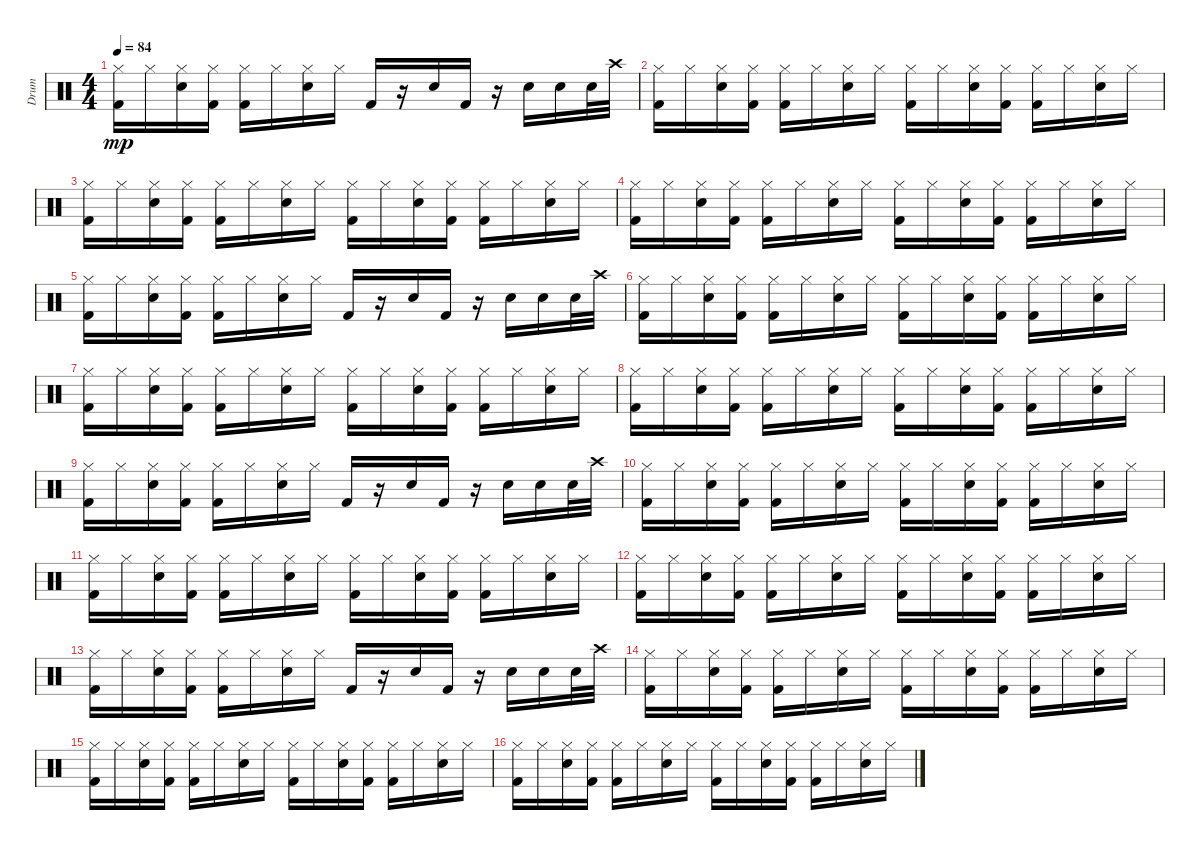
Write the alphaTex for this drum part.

\track ("Drum" "Drum") {instrument percussion}
\staff {score}
\articulation defaults
\ts (4 4)
\tempo 84
\clef neutral
\ks c
("Kick (hit) 2" "Hi-Hat (closed)").16{dy mp} "Hi-Hat (closed)".16 ("Snare (hit) 2" "Hi-Hat (closed)").16 ("Kick (hit) 2" "Hi-Hat (closed)").16 ("Kick (hit) 2" "Hi-Hat (closed)").16 "Hi-Hat (closed)".16 ("Snare (hit) 2" "Hi-Hat (closed)").16 "Hi-Hat (closed)".16 "Kick (hit) 2".16 r.16 "Snare (hit) 2".16 "Kick (hit) 2".16 r.16 "Snare (hit) 2".16 "Snare (hit) 2".16 "Snare (hit) 2".32 "Crash high (hit)".32 |
("Kick (hit) 2" "Hi-Hat (closed)").16 "Hi-Hat (closed)".16 ("Snare (hit) 2" "Hi-Hat (closed)").16 ("Kick (hit) 2" "Hi-Hat (closed)").16 ("Kick (hit) 2" "Hi-Hat (closed)").16 "Hi-Hat (closed)".16 ("Snare (hit) 2" "Hi-Hat (closed)").16 "Hi-Hat (closed)".16 ("Kick (hit) 2" "Hi-Hat (closed)").16 "Hi-Hat (closed)".16 ("Snare (hit) 2" "Hi-Hat (closed)").16 ("Kick (hit) 2" "Hi-Hat (closed)").16 ("Kick (hit) 2" "Hi-Hat (closed)").16 "Hi-Hat (closed)".16 ("Snare (hit) 2" "Hi-Hat (closed)").16 "Hi-Hat (closed)".16 |
("Kick (hit) 2" "Hi-Hat (closed)").16 "Hi-Hat (closed)".16 ("Snare (hit) 2" "Hi-Hat (closed)").16 ("Kick (hit) 2" "Hi-Hat (closed)").16 ("Kick (hit) 2" "Hi-Hat (closed)").16 "Hi-Hat (closed)".16 ("Snare (hit) 2" "Hi-Hat (closed)").16 "Hi-Hat (closed)".16 ("Kick (hit) 2" "Hi-Hat (closed)").16 "Hi-Hat (closed)".16 ("Snare (hit) 2" "Hi-Hat (closed)").16 ("Kick (hit) 2" "Hi-Hat (closed)").16 ("Kick (hit) 2" "Hi-Hat (closed)").16 "Hi-Hat (closed)".16 ("Snare (hit) 2" "Hi-Hat (closed)").16 "Hi-Hat (closed)".16 |
("Kick (hit) 2" "Hi-Hat (closed)").16 "Hi-Hat (closed)".16 ("Snare (hit) 2" "Hi-Hat (closed)").16 ("Kick (hit) 2" "Hi-Hat (closed)").16 ("Kick (hit) 2" "Hi-Hat (closed)").16 "Hi-Hat (closed)".16 ("Snare (hit) 2" "Hi-Hat (closed)").16 "Hi-Hat (closed)".16 ("Kick (hit) 2" "Hi-Hat (closed)").16 "Hi-Hat (closed)".16 ("Snare (hit) 2" "Hi-Hat (closed)").16 ("Kick (hit) 2" "Hi-Hat (closed)").16 ("Kick (hit) 2" "Hi-Hat (closed)").16 "Hi-Hat (closed)".16 ("Snare (hit) 2" "Hi-Hat (closed)").16 "Hi-Hat (closed)".16 |
("Kick (hit) 2" "Hi-Hat (closed)").16 "Hi-Hat (closed)".16 ("Snare (hit) 2" "Hi-Hat (closed)").16 ("Kick (hit) 2" "Hi-Hat (closed)").16 ("Kick (hit) 2" "Hi-Hat (closed)").16 "Hi-Hat (closed)".16 ("Snare (hit) 2" "Hi-Hat (closed)").16 "Hi-Hat (closed)".16 "Kick (hit) 2".16 r.16 "Snare (hit) 2".16 "Kick (hit) 2".16 r.16 "Snare (hit) 2".16 "Snare (hit) 2".16 "Snare (hit) 2".32 "Crash high (hit)".32 |
("Kick (hit) 2" "Hi-Hat (closed)").16 "Hi-Hat (closed)".16 ("Snare (hit) 2" "Hi-Hat (closed)").16 ("Kick (hit) 2" "Hi-Hat (closed)").16 ("Kick (hit) 2" "Hi-Hat (closed)").16 "Hi-Hat (closed)".16 ("Snare (hit) 2" "Hi-Hat (closed)").16 "Hi-Hat (closed)".16 ("Kick (hit) 2" "Hi-Hat (closed)").16 "Hi-Hat (closed)".16 ("Snare (hit) 2" "Hi-Hat (closed)").16 ("Kick (hit) 2" "Hi-Hat (closed)").16 ("Kick (hit) 2" "Hi-Hat (closed)").16 "Hi-Hat (closed)".16 ("Snare (hit) 2" "Hi-Hat (closed)").16 "Hi-Hat (closed)".16 |
("Kick (hit) 2" "Hi-Hat (closed)").16 "Hi-Hat (closed)".16 ("Snare (hit) 2" "Hi-Hat (closed)").16 ("Kick (hit) 2" "Hi-Hat (closed)").16 ("Kick (hit) 2" "Hi-Hat (closed)").16 "Hi-Hat (closed)".16 ("Snare (hit) 2" "Hi-Hat (closed)").16 "Hi-Hat (closed)".16 ("Kick (hit) 2" "Hi-Hat (closed)").16 "Hi-Hat (closed)".16 ("Snare (hit) 2" "Hi-Hat (closed)").16 ("Kick (hit) 2" "Hi-Hat (closed)").16 ("Kick (hit) 2" "Hi-Hat (closed)").16 "Hi-Hat (closed)".16 ("Snare (hit) 2" "Hi-Hat (closed)").16 "Hi-Hat (closed)".16 |
("Kick (hit) 2" "Hi-Hat (closed)").16 "Hi-Hat (closed)".16 ("Snare (hit) 2" "Hi-Hat (closed)").16 ("Kick (hit) 2" "Hi-Hat (closed)").16 ("Kick (hit) 2" "Hi-Hat (closed)").16 "Hi-Hat (closed)".16 ("Snare (hit) 2" "Hi-Hat (closed)").16 "Hi-Hat (closed)".16 ("Kick (hit) 2" "Hi-Hat (closed)").16 "Hi-Hat (closed)".16 ("Snare (hit) 2" "Hi-Hat (closed)").16 ("Kick (hit) 2" "Hi-Hat (closed)").16 ("Kick (hit) 2" "Hi-Hat (closed)").16 "Hi-Hat (closed)".16 ("Snare (hit) 2" "Hi-Hat (closed)").16 "Hi-Hat (closed)".16 |
("Kick (hit) 2" "Hi-Hat (closed)").16 "Hi-Hat (closed)".16 ("Snare (hit) 2" "Hi-Hat (closed)").16 ("Kick (hit) 2" "Hi-Hat (closed)").16 ("Kick (hit) 2" "Hi-Hat (closed)").16 "Hi-Hat (closed)".16 ("Snare (hit) 2" "Hi-Hat (closed)").16 "Hi-Hat (closed)".16 "Kick (hit) 2".16 r.16 "Snare (hit) 2".16 "Kick (hit) 2".16 r.16 "Snare (hit) 2".16 "Snare (hit) 2".16 "Snare (hit) 2".32 "Crash high (hit)".32 |
("Kick (hit) 2" "Hi-Hat (closed)").16 "Hi-Hat (closed)".16 ("Snare (hit) 2" "Hi-Hat (closed)").16 ("Kick (hit) 2" "Hi-Hat (closed)").16 ("Kick (hit) 2" "Hi-Hat (closed)").16 "Hi-Hat (closed)".16 ("Snare (hit) 2" "Hi-Hat (closed)").16 "Hi-Hat (closed)".16 ("Kick (hit) 2" "Hi-Hat (closed)").16 "Hi-Hat (closed)".16 ("Snare (hit) 2" "Hi-Hat (closed)").16 ("Kick (hit) 2" "Hi-Hat (closed)").16 ("Kick (hit) 2" "Hi-Hat (closed)").16 "Hi-Hat (closed)".16 ("Snare (hit) 2" "Hi-Hat (closed)").16 "Hi-Hat (closed)".16 |
("Kick (hit) 2" "Hi-Hat (closed)").16 "Hi-Hat (closed)".16 ("Snare (hit) 2" "Hi-Hat (closed)").16 ("Kick (hit) 2" "Hi-Hat (closed)").16 ("Kick (hit) 2" "Hi-Hat (closed)").16 "Hi-Hat (closed)".16 ("Snare (hit) 2" "Hi-Hat (closed)").16 "Hi-Hat (closed)".16 ("Kick (hit) 2" "Hi-Hat (closed)").16 "Hi-Hat (closed)".16 ("Snare (hit) 2" "Hi-Hat (closed)").16 ("Kick (hit) 2" "Hi-Hat (closed)").16 ("Kick (hit) 2" "Hi-Hat (closed)").16 "Hi-Hat (closed)".16 ("Snare (hit) 2" "Hi-Hat (closed)").16 "Hi-Hat (closed)".16 |
("Kick (hit) 2" "Hi-Hat (closed)").16 "Hi-Hat (closed)".16 ("Snare (hit) 2" "Hi-Hat (closed)").16 ("Kick (hit) 2" "Hi-Hat (closed)").16 ("Kick (hit) 2" "Hi-Hat (closed)").16 "Hi-Hat (closed)".16 ("Snare (hit) 2" "Hi-Hat (closed)").16 "Hi-Hat (closed)".16 ("Kick (hit) 2" "Hi-Hat (closed)").16 "Hi-Hat (closed)".16 ("Snare (hit) 2" "Hi-Hat (closed)").16 ("Kick (hit) 2" "Hi-Hat (closed)").16 ("Kick (hit) 2" "Hi-Hat (closed)").16 "Hi-Hat (closed)".16 ("Snare (hit) 2" "Hi-Hat (closed)").16 "Hi-Hat (closed)".16 |
("Kick (hit) 2" "Hi-Hat (closed)").16 "Hi-Hat (closed)".16 ("Snare (hit) 2" "Hi-Hat (closed)").16 ("Kick (hit) 2" "Hi-Hat (closed)").16 ("Kick (hit) 2" "Hi-Hat (closed)").16 "Hi-Hat (closed)".16 ("Snare (hit) 2" "Hi-Hat (closed)").16 "Hi-Hat (closed)".16 "Kick (hit) 2".16 r.16 "Snare (hit) 2".16 "Kick (hit) 2".16 r.16 "Snare (hit) 2".16 "Snare (hit) 2".16 "Snare (hit) 2".32 "Crash high (hit)".32 |
("Kick (hit) 2" "Hi-Hat (closed)").16 "Hi-Hat (closed)".16 ("Snare (hit) 2" "Hi-Hat (closed)").16 ("Kick (hit) 2" "Hi-Hat (closed)").16 ("Kick (hit) 2" "Hi-Hat (closed)").16 "Hi-Hat (closed)".16 ("Snare (hit) 2" "Hi-Hat (closed)").16 "Hi-Hat (closed)".16 ("Kick (hit) 2" "Hi-Hat (closed)").16 "Hi-Hat (closed)".16 ("Snare (hit) 2" "Hi-Hat (closed)").16 ("Kick (hit) 2" "Hi-Hat (closed)").16 ("Kick (hit) 2" "Hi-Hat (closed)").16 "Hi-Hat (closed)".16 ("Snare (hit) 2" "Hi-Hat (closed)").16 "Hi-Hat (closed)".16 |
("Kick (hit) 2" "Hi-Hat (closed)").16 "Hi-Hat (closed)".16 ("Snare (hit) 2" "Hi-Hat (closed)").16 ("Kick (hit) 2" "Hi-Hat (closed)").16 ("Kick (hit) 2" "Hi-Hat (closed)").16 "Hi-Hat (closed)".16 ("Snare (hit) 2" "Hi-Hat (closed)").16 "Hi-Hat (closed)".16 ("Kick (hit) 2" "Hi-Hat (closed)").16 "Hi-Hat (closed)".16 ("Snare (hit) 2" "Hi-Hat (closed)").16 ("Kick (hit) 2" "Hi-Hat (closed)").16 ("Kick (hit) 2" "Hi-Hat (closed)").16 "Hi-Hat (closed)".16 ("Snare (hit) 2" "Hi-Hat (closed)").16 "Hi-Hat (closed)".16 |
("Kick (hit) 2" "Hi-Hat (closed)").16 "Hi-Hat (closed)".16 ("Snare (hit) 2" "Hi-Hat (closed)").16 ("Kick (hit) 2" "Hi-Hat (closed)").16 ("Kick (hit) 2" "Hi-Hat (closed)").16 "Hi-Hat (closed)".16 ("Snare (hit) 2" "Hi-Hat (closed)").16 "Hi-Hat (closed)".16 ("Kick (hit) 2" "Hi-Hat (closed)").16 "Hi-Hat (closed)".16 ("Snare (hit) 2" "Hi-Hat (closed)").16 ("Kick (hit) 2" "Hi-Hat (closed)").16 ("Kick (hit) 2" "Hi-Hat (closed)").16 "Hi-Hat (closed)".16 ("Snare (hit) 2" "Hi-Hat (closed)").16 "Hi-Hat (closed)".16
